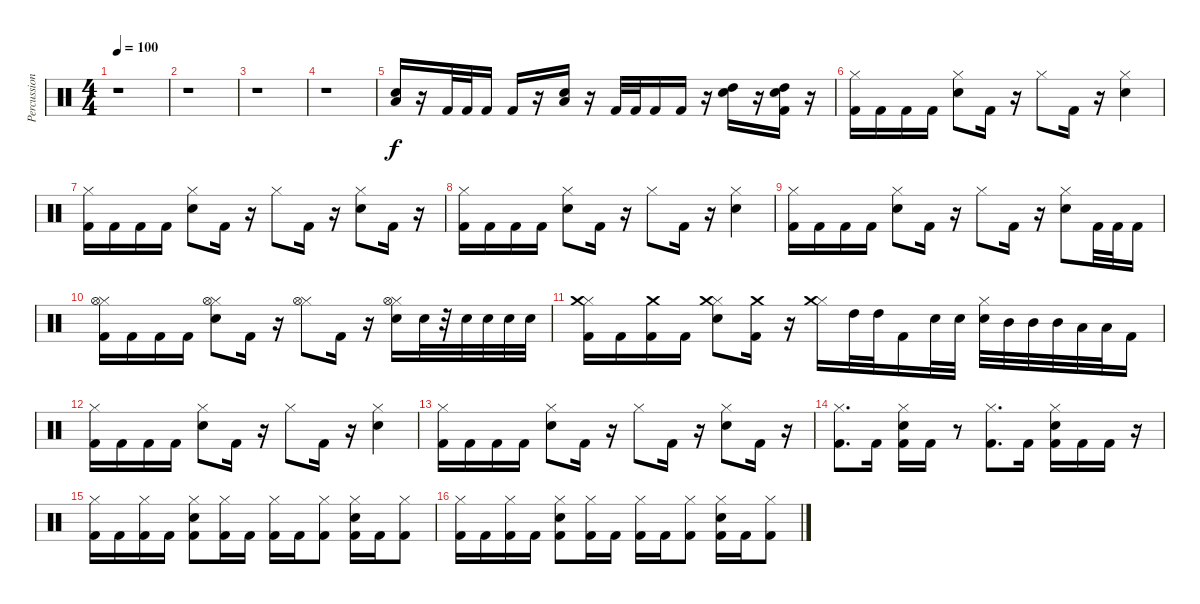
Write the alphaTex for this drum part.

\track ("Percussion" "Percussion") {instrument percussion}
\staff {score}
\articulation defaults
\ts (4 4)
\tempo 100
\clef neutral
\ks c
r.1{dy f} |
r.1 |
r.1 |
r.1 |
("Snare (hit) 2" "Low Floor Tom (hit)").16 r.16 "Kick (hit) 2".32 "Kick (hit) 2".32 "Kick (hit) 2".16 "Kick (hit) 2".16 r.16 ("Snare (hit) 2" "Low Floor Tom (hit)").16 r.16 "Kick (hit) 2".32 "Kick (hit) 2".32 "Kick (hit) 2".16 "Kick (hit) 2".16 r.16 ("Snare (hit) 2" "High Tom (hit)").16 r.16 ("Kick (hit) 2" "Snare (hit) 2" "High Tom (hit)").16 r.16 |
("Kick (hit) 2" "Hi-Hat (closed)").16 "Kick (hit) 2".16 "Kick (hit) 2".16 "Kick (hit) 2".16 ("Snare (hit) 2" "Hi-Hat (closed)").8 "Kick (hit) 2".16 r.16 "Hi-Hat (closed)".8 "Kick (hit) 2".16 r.16 ("Snare (hit) 2" "Hi-Hat (closed)").4 |
("Kick (hit) 2" "Hi-Hat (closed)").16 "Kick (hit) 2".16 "Kick (hit) 2".16 "Kick (hit) 2".16 ("Snare (hit) 2" "Hi-Hat (closed)").8 "Kick (hit) 2".16 r.16 "Hi-Hat (closed)".8 "Kick (hit) 2".16 r.16 ("Snare (hit) 2" "Hi-Hat (closed)").8 "Kick (hit) 2".16 r.16 |
("Kick (hit) 2" "Hi-Hat (closed)").16 "Kick (hit) 2".16 "Kick (hit) 2".16 "Kick (hit) 2".16 ("Snare (hit) 2" "Hi-Hat (closed)").8 "Kick (hit) 2".16 r.16 "Hi-Hat (closed)".8 "Kick (hit) 2".16 r.16 ("Snare (hit) 2" "Hi-Hat (closed)").4 |
("Kick (hit) 2" "Hi-Hat (closed)").16 "Kick (hit) 2".16 "Kick (hit) 2".16 "Kick (hit) 2".16 ("Snare (hit) 2" "Hi-Hat (closed)").8 "Kick (hit) 2".16 r.16 "Hi-Hat (closed)".8 "Kick (hit) 2".16 r.16 ("Snare (hit) 2" "Hi-Hat (closed)").8 "Kick (hit) 2".32 "Kick (hit) 2".32 "Kick (hit) 2".16 |
("Kick (hit) 2" "Hi-Hat (closed)" "Hi-Hat (open)").16 "Kick (hit) 2".16 "Kick (hit) 2".16 "Kick (hit) 2".16 ("Snare (hit) 2" "Hi-Hat (closed)" "Hi-Hat (open)").8 "Kick (hit) 2".16 r.16 ("Hi-Hat (closed)" "Hi-Hat (open)").8 "Kick (hit) 2".16 r.16 ("Snare (hit) 2" "Hi-Hat (closed)" "Hi-Hat (open)").16 "Snare (hit) 2".32 r.32 "Snare (hit) 2".32 "Snare (hit) 2".32 "Snare (hit) 2".32 "Snare (hit) 2".32 |
("Kick (hit) 2" "Hi-Hat (closed)" "Crash medium (hit)").16 "Kick (hit) 2".16 ("Kick (hit) 2" "Crash medium (hit)").16 "Kick (hit) 2".16 ("Snare (hit) 2" "Hi-Hat (closed)" "Crash medium (hit)").8 ("Kick (hit) 2" "Crash medium (hit)").16 r.16 ("Hi-Hat (closed)" "Crash medium (hit)").16 "High Tom (hit)".32 "High Tom (hit)".32 "Kick (hit) 2".16 "Snare (hit) 2".32 "Snare (hit) 2".32 ("Snare (hit) 2" "Hi-Hat (closed)").32 "Mid Tom (hit)".32 "Mid Tom (hit)".32 "Mid Tom (hit)".32 "Low Tom (hit)".32 "Low Tom (hit)".32 "Kick (hit) 2".16 |
("Kick (hit) 2" "Hi-Hat (closed)").16 "Kick (hit) 2".16 "Kick (hit) 2".16 "Kick (hit) 2".16 ("Snare (hit) 2" "Hi-Hat (closed)").8 "Kick (hit) 2".16 r.16 "Hi-Hat (closed)".8 "Kick (hit) 2".16 r.16 ("Snare (hit) 2" "Hi-Hat (closed)").4 |
("Kick (hit) 2" "Hi-Hat (closed)").16 "Kick (hit) 2".16 "Kick (hit) 2".16 "Kick (hit) 2".16 ("Snare (hit) 2" "Hi-Hat (closed)").8 "Kick (hit) 2".16 r.16 "Hi-Hat (closed)".8 "Kick (hit) 2".16 r.16 ("Snare (hit) 2" "Hi-Hat (closed)").8 "Kick (hit) 2".16 r.16 |
("Kick (hit) 2" "Hi-Hat (closed)").8{d} "Kick (hit) 2".16 ("Kick (hit) 2" "Snare (hit) 2" "Hi-Hat (closed)").16 "Kick (hit) 2".16 r.8 ("Kick (hit) 2" "Hi-Hat (closed)").8{d} "Kick (hit) 2".16 ("Kick (hit) 2" "Snare (hit) 2" "Hi-Hat (closed)").16 "Kick (hit) 2".16 "Kick (hit) 2".16 r.16 |
("Kick (hit) 2" "Hi-Hat (closed)").16 "Kick (hit) 2".16 ("Kick (hit) 2" "Hi-Hat (closed)").16 "Kick (hit) 2".16 ("Kick (hit) 2" "Snare (hit) 2" "Hi-Hat (closed)").8 ("Kick (hit) 2" "Hi-Hat (closed)").16 "Kick (hit) 2".16 ("Kick (hit) 2" "Hi-Hat (closed)").16 "Kick (hit) 2".16 ("Kick (hit) 2" "Hi-Hat (closed)").8 ("Kick (hit) 2" "Snare (hit) 2" "Hi-Hat (closed)").16 "Kick (hit) 2".16 ("Kick (hit) 2" "Hi-Hat (closed)").8 |
("Kick (hit) 2" "Hi-Hat (closed)").16 "Kick (hit) 2".16 ("Kick (hit) 2" "Hi-Hat (closed)").16 "Kick (hit) 2".16 ("Kick (hit) 2" "Snare (hit) 2" "Hi-Hat (closed)").8 ("Kick (hit) 2" "Hi-Hat (closed)").16 "Kick (hit) 2".16 ("Kick (hit) 2" "Hi-Hat (closed)").16 "Kick (hit) 2".16 ("Kick (hit) 2" "Hi-Hat (closed)").8 ("Kick (hit) 2" "Snare (hit) 2" "Hi-Hat (closed)").16 "Kick (hit) 2".16 ("Kick (hit) 2" "Hi-Hat (closed)").8
